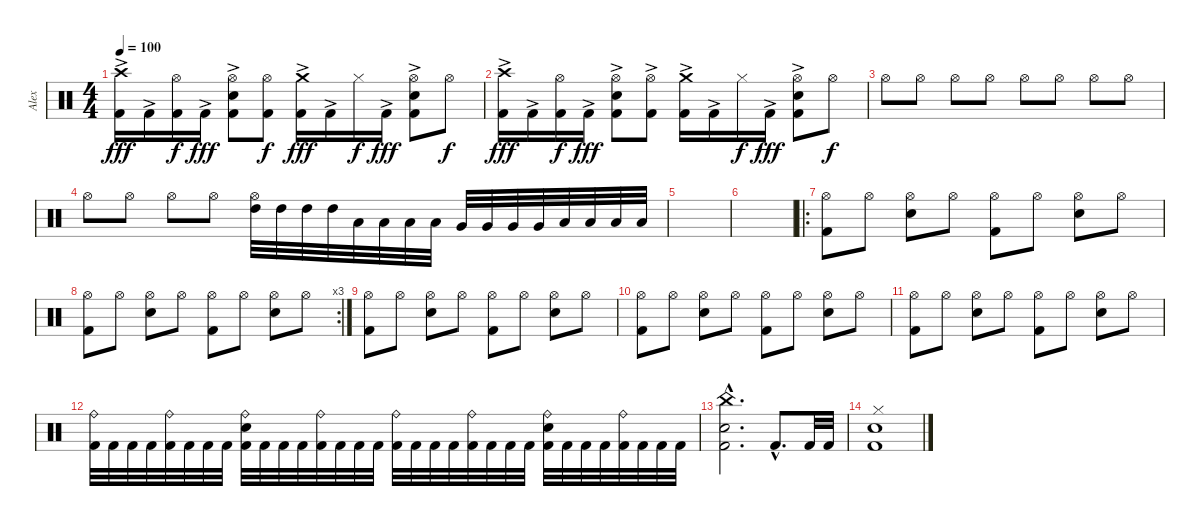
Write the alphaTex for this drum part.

\track ("Alex" "Alex") {instrument percussion}
\staff {score}
\articulation defaults
\ts (4 4)
\tempo 100
\clef neutral
\ks c
("Crash high (hit)" "Kick (hit) 2"{ac}).16{dy fff} "Kick (hit) 2"{ac}.16 ("Hi-Hat (open)" "Kick (hit) 2").16{dy f} "Kick (hit) 2"{ac}.16{dy fff} ("Electric Snare (hit)"{ac} "Hi-Hat (open)" "Kick (hit) 2").8 ("Hi-Hat (open)" "Kick (hit) 2").8{dy f} ("Crash medium (hit)" "Kick (hit) 2"{ac}).16{dy fff} "Kick (hit) 2"{ac}.16 "Hi-Hat (closed)".16{dy f} "Kick (hit) 2"{ac}.16{dy fff} ("Electric Snare (hit)"{ac} "Hi-Hat (open)" "Kick (hit) 2").8 "Hi-Hat (open)".8{dy f} |
("Crash high (hit)" "Kick (hit) 2"{ac}).16{dy fff} "Kick (hit) 2"{ac}.16 ("Hi-Hat (open)" "Kick (hit) 2").16{dy f} "Kick (hit) 2"{ac}.16{dy fff} ("Electric Snare (hit)"{ac} "Hi-Hat (open)" "Kick (hit) 2").8 ("Hi-Hat (open)" "Kick (hit) 2"{ac}).8 ("Crash medium (hit)" "Kick (hit) 2"{ac}).16 "Kick (hit) 2"{ac}.16 "Hi-Hat (closed)".16{dy f} "Kick (hit) 2"{ac}.16{dy fff} ("Electric Snare (hit)"{ac} "Hi-Hat (open)" "Kick (hit) 2").8 "Hi-Hat (open)".8{dy f} |
"Hi-Hat (open)".8 "Hi-Hat (open)".8 "Hi-Hat (open)".8 "Hi-Hat (open)".8 "Hi-Hat (open)".8 "Hi-Hat (open)".8 "Hi-Hat (open)".8 "Hi-Hat (open)".8 |
"Hi-Hat (open)".8 "Hi-Hat (open)".8 "Hi-Hat (open)".8 "Hi-Hat (open)".8 ("Hi-Hat (open)" "High Tom (hit)").32 "High Tom (hit)".32 "High Tom (hit)".32 "High Tom (hit)".32 "Low Tom (hit)".32 "Low Tom (hit)".32 "Low Tom (hit)".32 "Low Tom (hit)".32 "Very Low Tom (hit)".32 "Very Low Tom (hit)".32 "Very Low Tom (hit)".32 "Very Low Tom (hit)".32 "Low Floor Tom (hit)".32 "Low Floor Tom (hit)".32 "Low Floor Tom (hit)".32 "Low Floor Tom (hit)".32 |
|
|
\ro
("Hi-Hat (open)" "Kick (hit) 2").8 "Hi-Hat (open)".8 ("Electric Snare (hit)" "Hi-Hat (open)").8 "Hi-Hat (open)".8 ("Hi-Hat (open)" "Kick (hit) 2").8 "Hi-Hat (open)".8 ("Electric Snare (hit)" "Hi-Hat (open)").8 "Hi-Hat (open)".8 |
\rc 3
("Hi-Hat (open)" "Kick (hit) 2").8 "Hi-Hat (open)".8 ("Electric Snare (hit)" "Hi-Hat (open)").8 "Hi-Hat (open)".8 ("Hi-Hat (open)" "Kick (hit) 2").8 "Hi-Hat (open)".8 ("Electric Snare (hit)" "Hi-Hat (open)").8 "Hi-Hat (open)".8 |
("Hi-Hat (open)" "Kick (hit) 2").8 "Hi-Hat (open)".8 ("Electric Snare (hit)" "Hi-Hat (open)").8 "Hi-Hat (open)".8 ("Hi-Hat (open)" "Kick (hit) 2").8 "Hi-Hat (open)".8 ("Electric Snare (hit)" "Hi-Hat (open)").8 "Hi-Hat (open)".8 |
("Hi-Hat (open)" "Kick (hit) 2").8 "Hi-Hat (open)".8 ("Electric Snare (hit)" "Hi-Hat (open)").8 "Hi-Hat (open)".8 ("Hi-Hat (open)" "Kick (hit) 2").8 "Hi-Hat (open)".8 ("Electric Snare (hit)" "Hi-Hat (open)").8 "Hi-Hat (open)".8 |
("Hi-Hat (open)" "Kick (hit) 2").8 "Hi-Hat (open)".8 ("Electric Snare (hit)" "Hi-Hat (open)").8 "Hi-Hat (open)".8 ("Hi-Hat (open)" "Kick (hit) 2").8 "Hi-Hat (open)".8 ("Electric Snare (hit)" "Hi-Hat (open)").8 "Hi-Hat (open)".8 |
("Ride (bell)" "Kick (hit) 2").32 "Kick (hit) 2".32 "Kick (hit) 2".32 "Kick (hit) 2".32 ("Ride (bell)" "Kick (hit) 2").32 "Kick (hit) 2".32 "Kick (hit) 2".32 "Kick (hit) 2".32 ("Electric Snare (hit)" "Ride (bell)" "Kick (hit) 2").32 "Kick (hit) 2".32 "Kick (hit) 2".32 "Kick (hit) 2".32 ("Ride (bell)" "Kick (hit) 2").32 "Kick (hit) 2".32 "Kick (hit) 2".32 "Kick (hit) 2".32 ("Ride (bell)" "Kick (hit) 2").32 "Kick (hit) 2".32 "Kick (hit) 2".32 "Kick (hit) 2".32 ("Ride (bell)" "Kick (hit) 2").32 "Kick (hit) 2".32 "Kick (hit) 2".32 "Kick (hit) 2".32 ("Electric Snare (hit)" "Ride (bell)" "Kick (hit) 2").32 "Kick (hit) 2".32 "Kick (hit) 2".32 "Kick (hit) 2".32 ("Ride (bell)" "Kick (hit) 2").32 "Kick (hit) 2".32 "Kick (hit) 2".32 "Kick (hit) 2".32 |
("China (hit)"{hac} "Electric Snare (hit)"{hac} "Kick (hit) 2"{hac}).2{d} "Kick (hit) 2"{hac}.8{d} "Kick (hit) 2".32 "Kick (hit) 2".32 |
("Hi-Hat (closed)" "Snare (hit) 2" "Kick (hit) 2").1
